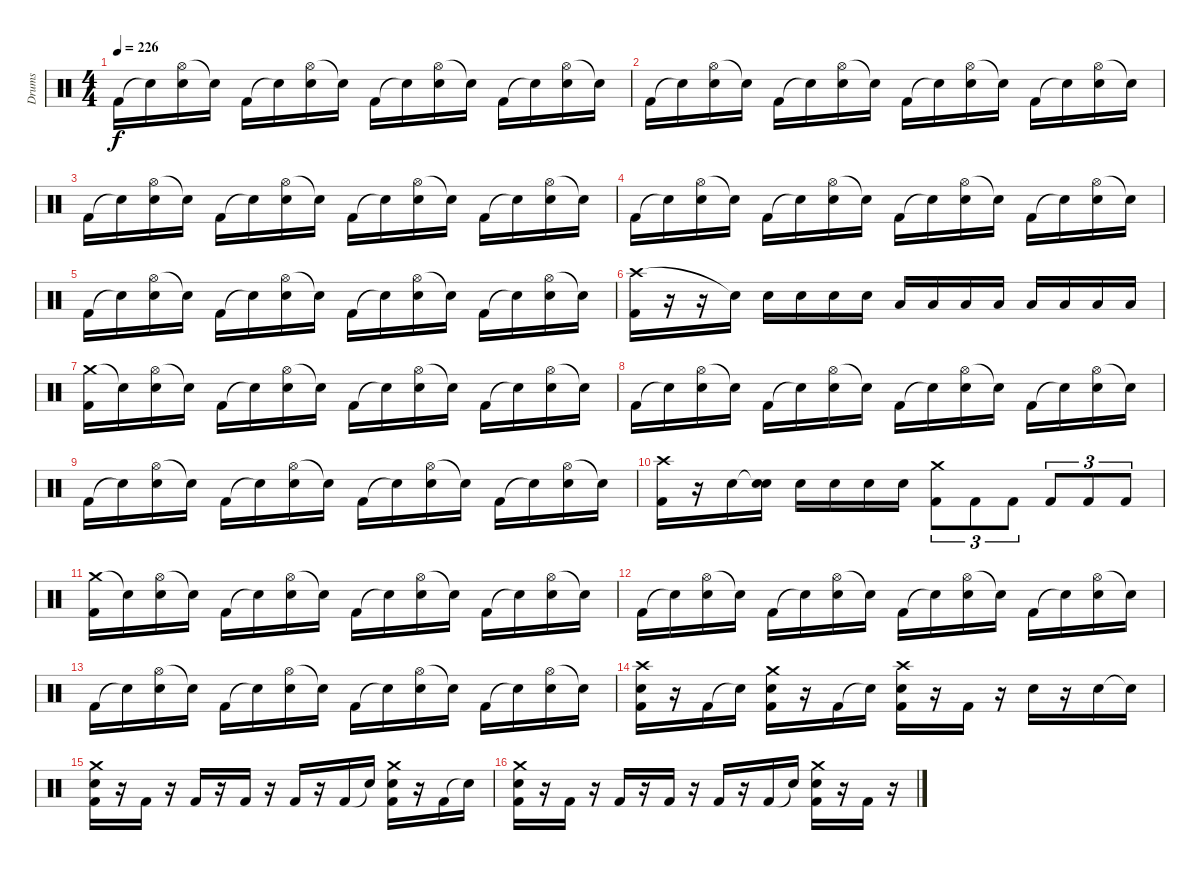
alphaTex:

\track ("Drums" "Drums") {instrument percussion}
\staff {score}
\articulation defaults
\ts (4 4)
\tempo 226
\clef neutral
\ks c "Kick (hit) 2".16{dy f} "Snare (hit)"{t}.16
("Hi-Hat (open)" "Electric Snare (hit)").16 "Snare (hit)"{t}.16 "Kick (hit) 2".16 "Snare (hit)"{t}.16 ("Hi-Hat (open)" "Electric Snare (hit)").16 "Snare (hit)"{t}.16 "Kick (hit) 2".16 "Snare (hit)"{t}.16 ("Hi-Hat (open)" "Electric Snare (hit)").16 "Snare (hit)"{t}.16 "Kick (hit) 2".16 "Snare (hit)"{t}.16 ("Hi-Hat (open)" "Electric Snare (hit)").16 "Snare (hit)"{t}.16 |
"Kick (hit) 2".16 "Snare (hit)"{t}.16 ("Hi-Hat (open)" "Electric Snare (hit)").16 "Snare (hit)"{t}.16 "Kick (hit) 2".16 "Snare (hit)"{t}.16 ("Hi-Hat (open)" "Electric Snare (hit)").16 "Snare (hit)"{t}.16 "Kick (hit) 2".16 "Snare (hit)"{t}.16 ("Hi-Hat (open)" "Electric Snare (hit)").16 "Snare (hit)"{t}.16 "Kick (hit) 2".16 "Snare (hit)"{t}.16 ("Hi-Hat (open)" "Electric Snare (hit)").16 "Snare (hit)"{t}.16 |
"Kick (hit) 2".16 "Snare (hit)"{t}.16 ("Hi-Hat (open)" "Electric Snare (hit)").16 "Snare (hit)"{t}.16 "Kick (hit) 2".16 "Snare (hit)"{t}.16 ("Hi-Hat (open)" "Electric Snare (hit)").16 "Snare (hit)"{t}.16 "Kick (hit) 2".16 "Snare (hit)"{t}.16 ("Hi-Hat (open)" "Electric Snare (hit)").16 "Snare (hit)"{t}.16 "Kick (hit) 2".16 "Snare (hit)"{t}.16 ("Hi-Hat (open)" "Electric Snare (hit)").16 "Snare (hit)"{t}.16 |
"Kick (hit) 2".16 "Snare (hit)"{t}.16 ("Hi-Hat (open)" "Electric Snare (hit)").16 "Snare (hit)"{t}.16 "Kick (hit) 2".16 "Snare (hit)"{t}.16 ("Hi-Hat (open)" "Electric Snare (hit)").16 "Snare (hit)"{t}.16 "Kick (hit) 2".16 "Snare (hit)"{t}.16 ("Hi-Hat (open)" "Electric Snare (hit)").16 "Snare (hit)"{t}.16 "Kick (hit) 2".16 "Snare (hit)"{t}.16 ("Hi-Hat (open)" "Electric Snare (hit)").16 "Snare (hit)"{t}.16 |
"Kick (hit) 2".16 "Snare (hit)"{t}.16 ("Hi-Hat (open)" "Electric Snare (hit)").16 "Snare (hit)"{t}.16 "Kick (hit) 2".16 "Snare (hit)"{t}.16 ("Hi-Hat (open)" "Electric Snare (hit)").16 "Snare (hit)"{t}.16 "Kick (hit) 2".16 "Snare (hit)"{t}.16 ("Hi-Hat (open)" "Electric Snare (hit)").16 "Snare (hit)"{t}.16 "Kick (hit) 2".16 "Snare (hit)"{t}.16 ("Hi-Hat (open)" "Electric Snare (hit)").16 "Snare (hit)"{t}.16 |
("Crash high (hit)" "Kick (hit) 2").16 r.16 r.16 "Snare (hit)"{t}.16 "Electric Snare (hit)".16 "Electric Snare (hit)".16 "Electric Snare (hit)".16 "Electric Snare (hit)".16 "Low Tom (hit)".16 "Low Tom (hit)".16 "Low Tom (hit)".16 "Low Tom (hit)".16 "Low Floor Tom (hit)".16 "Low Floor Tom (hit)".16 "Low Floor Tom (hit)".16 "Low Floor Tom (hit)".16 |
("Crash medium (hit)" "Kick (hit) 2").16 "Snare (hit)"{t}.16 ("Hi-Hat (open)" "Electric Snare (hit)").16 "Snare (hit)"{t}.16 "Kick (hit) 2".16 "Snare (hit)"{t}.16 ("Hi-Hat (open)" "Electric Snare (hit)").16 "Snare (hit)"{t}.16 "Kick (hit) 2".16 "Snare (hit)"{t}.16 ("Hi-Hat (open)" "Electric Snare (hit)").16 "Snare (hit)"{t}.16 "Kick (hit) 2".16 "Snare (hit)"{t}.16 ("Hi-Hat (open)" "Electric Snare (hit)").16 "Snare (hit)"{t}.16 |
"Kick (hit) 2".16 "Snare (hit)"{t}.16 ("Hi-Hat (open)" "Electric Snare (hit)").16 "Snare (hit)"{t}.16 "Kick (hit) 2".16 "Snare (hit)"{t}.16 ("Hi-Hat (open)" "Electric Snare (hit)").16 "Snare (hit)"{t}.16 "Kick (hit) 2".16 "Snare (hit)"{t}.16 ("Hi-Hat (open)" "Electric Snare (hit)").16 "Snare (hit)"{t}.16 "Kick (hit) 2".16 "Snare (hit)"{t}.16 ("Hi-Hat (open)" "Electric Snare (hit)").16 "Snare (hit)"{t}.16 |
"Kick (hit) 2".16 "Snare (hit)"{t}.16 ("Hi-Hat (open)" "Electric Snare (hit)").16 "Snare (hit)"{t}.16 "Kick (hit) 2".16 "Snare (hit)"{t}.16 ("Hi-Hat (open)" "Electric Snare (hit)").16 "Snare (hit)"{t}.16 "Kick (hit) 2".16 "Snare (hit)"{t}.16 ("Hi-Hat (open)" "Electric Snare (hit)").16 "Snare (hit)"{t}.16 "Kick (hit) 2".16 "Snare (hit)"{t}.16 ("Hi-Hat (open)" "Electric Snare (hit)").16 "Snare (hit)"{t}.16 |
("Crash high (hit)" "Kick (hit) 2").16 r.16 "Electric Snare (hit)".16 ("Snare (hit)"{t} "Electric Snare (hit)").16 "Electric Snare (hit)".16 "Electric Snare (hit)".16 "Electric Snare (hit)".16 "Electric Snare (hit)".16 ("Crash medium (hit)" "Kick (hit) 2").8{tu (3 2)} "Kick (hit) 2".8{tu (3 2)} "Kick (hit) 2".8{tu (3 2)} "Kick (hit) 2".8{tu (3 2)} "Kick (hit) 2".8{tu (3 2)} "Kick (hit) 2".8{tu (3 2)} |
("Crash medium (hit)" "Kick (hit) 2").16 "Snare (hit)"{t}.16 ("Hi-Hat (open)" "Electric Snare (hit)").16 "Snare (hit)"{t}.16 "Kick (hit) 2".16 "Snare (hit)"{t}.16 ("Hi-Hat (open)" "Electric Snare (hit)").16 "Snare (hit)"{t}.16 "Kick (hit) 2".16 "Snare (hit)"{t}.16 ("Hi-Hat (open)" "Electric Snare (hit)").16 "Snare (hit)"{t}.16 "Kick (hit) 2".16 "Snare (hit)"{t}.16 ("Hi-Hat (open)" "Electric Snare (hit)").16 "Snare (hit)"{t}.16 |
"Kick (hit) 2".16 "Snare (hit)"{t}.16 ("Hi-Hat (open)" "Electric Snare (hit)").16 "Snare (hit)"{t}.16 "Kick (hit) 2".16 "Snare (hit)"{t}.16 ("Hi-Hat (open)" "Electric Snare (hit)").16 "Snare (hit)"{t}.16 "Kick (hit) 2".16 "Snare (hit)"{t}.16 ("Hi-Hat (open)" "Electric Snare (hit)").16 "Snare (hit)"{t}.16 "Kick (hit) 2".16 "Snare (hit)"{t}.16 ("Hi-Hat (open)" "Electric Snare (hit)").16 "Snare (hit)"{t}.16 |
"Kick (hit) 2".16 "Snare (hit)"{t}.16 ("Hi-Hat (open)" "Electric Snare (hit)").16 "Snare (hit)"{t}.16 "Kick (hit) 2".16 "Snare (hit)"{t}.16 ("Hi-Hat (open)" "Electric Snare (hit)").16 "Snare (hit)"{t}.16 "Kick (hit) 2".16 "Snare (hit)"{t}.16 ("Hi-Hat (open)" "Electric Snare (hit)").16 "Snare (hit)"{t}.16 "Kick (hit) 2".16 "Snare (hit)"{t}.16 ("Hi-Hat (open)" "Electric Snare (hit)").16 "Snare (hit)"{t}.16 |
("Crash high (hit)" "Electric Snare (hit)" "Kick (hit) 2").16 r.16 "Kick (hit) 2".16 "Snare (hit)"{t}.16 ("Crash medium (hit)" "Electric Snare (hit)" "Kick (hit) 2").16 r.16 "Kick (hit) 2".16 "Snare (hit)"{t}.16 ("Crash high (hit)" "Electric Snare (hit)" "Kick (hit) 2").16 r.16 "Kick (hit) 2".16 r.16 "Electric Snare (hit)".16 r.16 "Electric Snare (hit)".16 "Snare (hit)"{t}.16 |
("Crash medium (hit)" "Electric Snare (hit)" "Kick (hit) 2").16 r.16 "Kick (hit) 2".16 r.16 "Kick (hit) 2".16 r.16 "Kick (hit) 2".16 r.16 "Kick (hit) 2".16 r.16 "Kick (hit) 2".16 "Snare (hit)"{t}.16 ("Crash medium (hit)" "Electric Snare (hit)" "Kick (hit) 2").16 r.16 "Kick (hit) 2".16 "Snare (hit)"{t}.16 |
("Crash medium (hit)" "Electric Snare (hit)" "Kick (hit) 2").16 r.16 "Kick (hit) 2".16 r.16 "Kick (hit) 2".16 r.16 "Kick (hit) 2".16 r.16 "Kick (hit) 2".16 r.16 "Kick (hit) 2".16 "Snare (hit)"{t}.16 ("Crash medium (hit)" "Electric Snare (hit)" "Kick (hit) 2").16 r.16 "Kick (hit) 2".16 r.16
